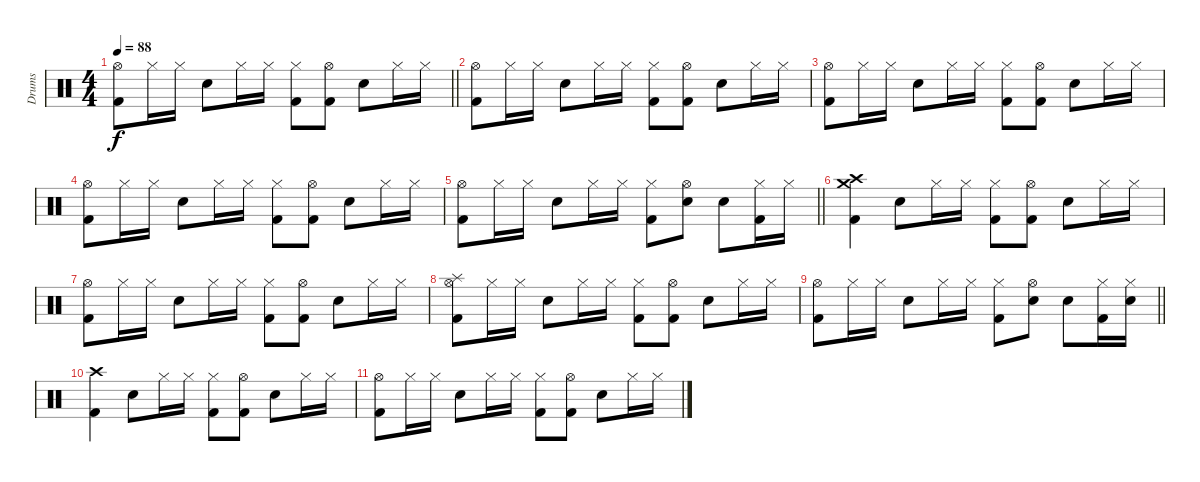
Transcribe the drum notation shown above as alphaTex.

\track ("Drums" "Drums") {instrument percussion}
\staff {score}
\articulation defaults
\ts (4 4)
\tempo 88
\clef neutral
\barLineRight lightlight
\ks c
("Hi-Hat (open)" "Kick (hit) 2").8{dy f} "Hi-Hat (closed)".16 "Hi-Hat (closed)".16 "Electric Snare (hit)".8 "Hi-Hat (closed)".16 "Hi-Hat (closed)".16 ("Hi-Hat (closed)" "Kick (hit) 2").8 ("Hi-Hat (open)" "Kick (hit) 2").8 "Electric Snare (hit)".8 "Hi-Hat (closed)".16 "Hi-Hat (closed)".16 |
("Hi-Hat (open)" "Kick (hit) 2").8 "Hi-Hat (closed)".16 "Hi-Hat (closed)".16 "Electric Snare (hit)".8 "Hi-Hat (closed)".16 "Hi-Hat (closed)".16 ("Hi-Hat (closed)" "Kick (hit) 2").8 ("Hi-Hat (open)" "Kick (hit) 2").8 "Electric Snare (hit)".8 "Hi-Hat (closed)".16 "Hi-Hat (closed)".16 |
("Hi-Hat (open)" "Kick (hit) 2").8 "Hi-Hat (closed)".16 "Hi-Hat (closed)".16 "Electric Snare (hit)".8 "Hi-Hat (closed)".16 "Hi-Hat (closed)".16 ("Hi-Hat (closed)" "Kick (hit) 2").8 ("Hi-Hat (open)" "Kick (hit) 2").8 "Electric Snare (hit)".8 "Hi-Hat (closed)".16 "Hi-Hat (closed)".16 |
("Hi-Hat (open)" "Kick (hit) 2").8 "Hi-Hat (closed)".16 "Hi-Hat (closed)".16 "Electric Snare (hit)".8 "Hi-Hat (closed)".16 "Hi-Hat (closed)".16 ("Hi-Hat (closed)" "Kick (hit) 2").8 ("Hi-Hat (open)" "Kick (hit) 2").8 "Electric Snare (hit)".8 "Hi-Hat (closed)".16 "Hi-Hat (closed)".16 |
\barLineRight lightlight
("Hi-Hat (open)" "Kick (hit) 2").8 "Hi-Hat (closed)".16 "Hi-Hat (closed)".16 "Electric Snare (hit)".8 "Hi-Hat (closed)".16 "Hi-Hat (closed)".16 ("Hi-Hat (closed)" "Kick (hit) 2").8 ("Hi-Hat (open)" "Electric Snare (hit)").8 "Electric Snare (hit)".8 ("Hi-Hat (closed)" "Kick (hit) 2").16 "Hi-Hat (closed)".16 |
("Crash high (hit)" "Crash medium (hit)" "Kick (hit) 2").4 "Electric Snare (hit)".8 "Hi-Hat (closed)".16 "Hi-Hat (closed)".16 ("Hi-Hat (closed)" "Kick (hit) 2").8 ("Hi-Hat (open)" "Kick (hit) 2").8 "Electric Snare (hit)".8 "Hi-Hat (closed)".16 "Hi-Hat (closed)".16 |
("Hi-Hat (open)" "Kick (hit) 2").8 "Hi-Hat (closed)".16 "Hi-Hat (closed)".16 "Electric Snare (hit)".8 "Hi-Hat (closed)".16 "Hi-Hat (closed)".16 ("Hi-Hat (closed)" "Kick (hit) 2").8 ("Hi-Hat (open)" "Kick (hit) 2").8 "Electric Snare (hit)".8 "Hi-Hat (closed)".16 "Hi-Hat (closed)".16 |
("Hi-Hat (open)" "Splash (hit)" "Kick (hit) 2").8 "Hi-Hat (closed)".16 "Hi-Hat (closed)".16 "Electric Snare (hit)".8 "Hi-Hat (closed)".16 "Hi-Hat (closed)".16 ("Hi-Hat (closed)" "Kick (hit) 2").8 ("Hi-Hat (open)" "Kick (hit) 2").8 "Electric Snare (hit)".8 "Hi-Hat (closed)".16 "Hi-Hat (closed)".16 |
\barLineRight lightlight
("Hi-Hat (open)" "Kick (hit) 2").8 "Hi-Hat (closed)".16 "Hi-Hat (closed)".16 "Electric Snare (hit)".8 "Hi-Hat (closed)".16 "Hi-Hat (closed)".16 ("Hi-Hat (closed)" "Kick (hit) 2").8 ("Hi-Hat (open)" "Electric Snare (hit)").8 "Electric Snare (hit)".8 ("Hi-Hat (closed)" "Kick (hit) 2").16 ("Hi-Hat (closed)" "Electric Snare (hit)").16 |
("Crash high (hit)" "Kick (hit) 2").4 "Electric Snare (hit)".8 "Hi-Hat (closed)".16 "Hi-Hat (closed)".16 ("Hi-Hat (closed)" "Kick (hit) 2").8 ("Hi-Hat (open)" "Kick (hit) 2").8 "Electric Snare (hit)".8 "Hi-Hat (closed)".16 "Hi-Hat (closed)".16 |
("Hi-Hat (open)" "Kick (hit) 2").8 "Hi-Hat (closed)".16 "Hi-Hat (closed)".16 "Electric Snare (hit)".8 "Hi-Hat (closed)".16 "Hi-Hat (closed)".16 ("Hi-Hat (closed)" "Kick (hit) 2").8 ("Hi-Hat (open)" "Kick (hit) 2").8 "Electric Snare (hit)".8 "Hi-Hat (closed)".16 "Hi-Hat (closed)".16
